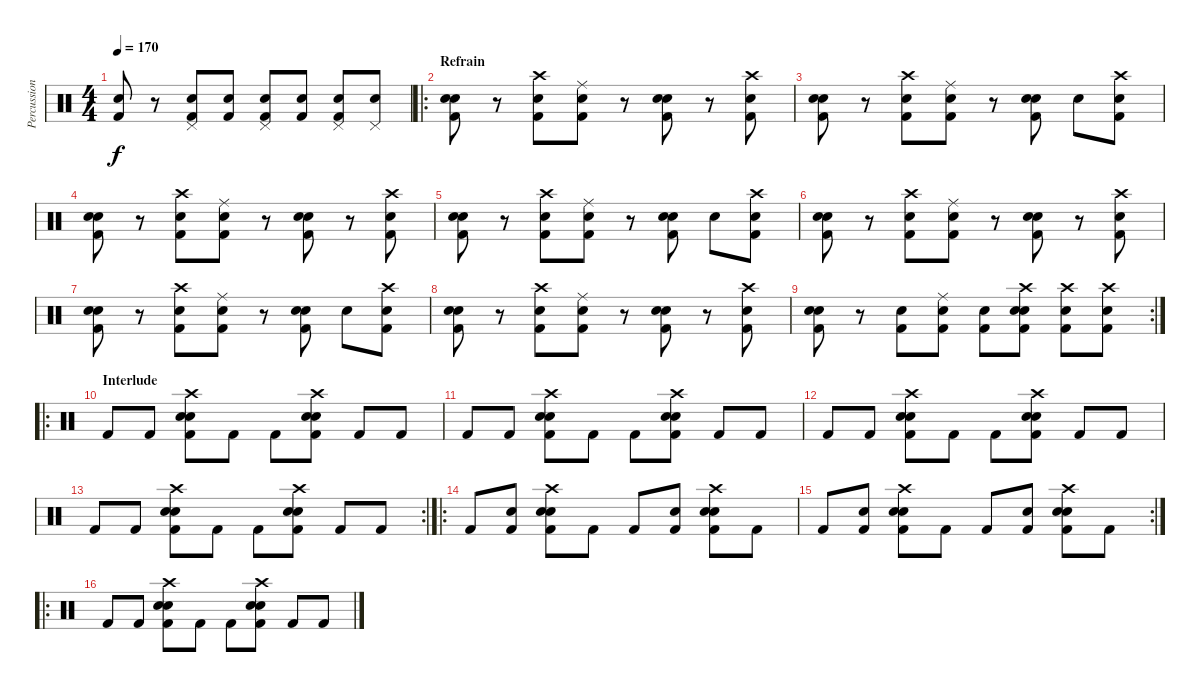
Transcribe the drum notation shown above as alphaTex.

\track ("Percussions" "Percussion") {instrument percussion}
\staff {score}
\articulation defaults
\ts (4 4)
\tempo 170
\clef neutral
\ks c
("Snare (hit) 2" "Kick (hit) 2").8{dy f} r.8 ("Pedal Hi-Hat (hit)" "Kick (hit) 2" "Snare (hit) 2").8 ("Kick (hit) 2" "Snare (hit) 2").8 ("Pedal Hi-Hat (hit)" "Kick (hit) 2" "Snare (hit) 2").8 ("Kick (hit) 2" "Snare (hit) 2").8 ("Pedal Hi-Hat (hit)" "Kick (hit) 2" "Snare (hit) 2").8 ("Pedal Hi-Hat (hit)" "Snare (hit) 2").8 |
\ro
\section ("" "Refrain")
("Electric Snare (hit)" "Kick (hit) 2" "Snare (hit) 2").8 r.8 ("Electric Snare (hit)" "Kick (hit) 2" "Crash high (hit)").8 ("Ride (middle)" "Snare (hit) 2" "Kick (hit) 2").8 r.8 ("Electric Snare (hit)" "Kick (hit) 2" "Snare (hit) 2").8 r.8 ("Snare (hit) 2" "Crash high (hit)" "Kick (hit) 2").8 |
("Electric Snare (hit)" "Kick (hit) 2" "Snare (hit) 2").8 r.8 ("Electric Snare (hit)" "Kick (hit) 2" "Crash high (hit)").8 ("Ride (middle)" "Snare (hit) 2" "Kick (hit) 2").8 r.8 ("Electric Snare (hit)" "Kick (hit) 2" "Snare (hit) 2").8 "Snare (hit) 2".8 ("Snare (hit) 2" "Crash high (hit)" "Kick (hit) 2").8 |
("Electric Snare (hit)" "Kick (hit) 2" "Snare (hit) 2").8 r.8 ("Electric Snare (hit)" "Kick (hit) 2" "Crash high (hit)").8 ("Ride (middle)" "Snare (hit) 2" "Kick (hit) 2").8 r.8 ("Electric Snare (hit)" "Kick (hit) 2" "Snare (hit) 2").8 r.8 ("Snare (hit) 2" "Crash high (hit)" "Kick (hit) 2").8 |
("Electric Snare (hit)" "Kick (hit) 2" "Snare (hit) 2").8 r.8 ("Electric Snare (hit)" "Kick (hit) 2" "Crash high (hit)").8 ("Ride (middle)" "Snare (hit) 2" "Kick (hit) 2").8 r.8 ("Electric Snare (hit)" "Kick (hit) 2" "Snare (hit) 2").8 "Snare (hit) 2".8 ("Snare (hit) 2" "Crash high (hit)" "Kick (hit) 2").8 |
("Electric Snare (hit)" "Kick (hit) 2" "Snare (hit) 2").8 r.8 ("Electric Snare (hit)" "Kick (hit) 2" "Crash high (hit)").8 ("Ride (middle)" "Snare (hit) 2" "Kick (hit) 2").8 r.8 ("Electric Snare (hit)" "Kick (hit) 2" "Snare (hit) 2").8 r.8 ("Snare (hit) 2" "Crash high (hit)" "Kick (hit) 2").8 |
("Electric Snare (hit)" "Kick (hit) 2" "Snare (hit) 2").8 r.8 ("Electric Snare (hit)" "Kick (hit) 2" "Crash high (hit)").8 ("Ride (middle)" "Snare (hit) 2" "Kick (hit) 2").8 r.8 ("Electric Snare (hit)" "Kick (hit) 2" "Snare (hit) 2").8 "Snare (hit) 2".8 ("Snare (hit) 2" "Crash high (hit)" "Kick (hit) 2").8 |
("Electric Snare (hit)" "Kick (hit) 2" "Snare (hit) 2").8 r.8 ("Electric Snare (hit)" "Kick (hit) 2" "Crash high (hit)").8 ("Ride (middle)" "Snare (hit) 2" "Kick (hit) 2").8 r.8 ("Electric Snare (hit)" "Kick (hit) 2" "Snare (hit) 2").8 r.8 ("Snare (hit) 2" "Crash high (hit)" "Kick (hit) 2").8 |
\rc 2
("Electric Snare (hit)" "Kick (hit) 2" "Snare (hit) 2").8 r.8 ("Electric Snare (hit)" "Kick (hit) 2").8 ("Ride (middle)" "Snare (hit) 2" "Kick (hit) 2").8 ("Electric Snare (hit)" "Kick (hit) 2").8 ("Electric Snare (hit)" "Kick (hit) 2" "Snare (hit) 2" "Crash high (hit)").8 ("Electric Snare (hit)" "Kick (hit) 2" "Crash high (hit)").8 ("Snare (hit) 2" "Crash high (hit)" "Kick (hit) 2").8 |
\ro
\section ("" "Interlude")
"Kick (hit) 2".8 "Kick (hit) 2".8 ("Electric Snare (hit)" "Snare (hit) 2" "Kick (hit) 2" "Crash high (hit)").8 "Kick (hit) 2".8 "Kick (hit) 2".8 ("Electric Snare (hit)" "Snare (hit) 2" "Kick (hit) 2" "Crash high (hit)").8 "Kick (hit) 2".8 "Kick (hit) 2".8 |
"Kick (hit) 2".8 "Kick (hit) 2".8 ("Electric Snare (hit)" "Snare (hit) 2" "Kick (hit) 2" "Crash high (hit)").8 "Kick (hit) 2".8 "Kick (hit) 2".8 ("Electric Snare (hit)" "Snare (hit) 2" "Kick (hit) 2" "Crash high (hit)").8 "Kick (hit) 2".8 "Kick (hit) 2".8 |
"Kick (hit) 2".8 "Kick (hit) 2".8 ("Electric Snare (hit)" "Snare (hit) 2" "Kick (hit) 2" "Crash high (hit)").8 "Kick (hit) 2".8 "Kick (hit) 2".8 ("Electric Snare (hit)" "Snare (hit) 2" "Kick (hit) 2" "Crash high (hit)").8 "Kick (hit) 2".8 "Kick (hit) 2".8 |
\rc 2 "Kick (hit) 2".8 "Kick (hit) 2".8
("Electric Snare (hit)" "Snare (hit) 2" "Kick (hit) 2" "Crash high (hit)").8 "Kick (hit) 2".8 "Kick (hit) 2".8 ("Electric Snare (hit)" "Snare (hit) 2" "Kick (hit) 2" "Crash high (hit)").8 "Kick (hit) 2".8 "Kick (hit) 2".8 |
\ro "Kick (hit) 2".8
("Kick (hit) 2" "Snare (hit) 2").8 ("Electric Snare (hit)" "Snare (hit) 2" "Kick (hit) 2" "Crash high (hit)").8 "Kick (hit) 2".8 "Kick (hit) 2".8 ("Kick (hit) 2" "Snare (hit) 2").8 ("Electric Snare (hit)" "Snare (hit) 2" "Kick (hit) 2" "Crash high (hit)").8 "Kick (hit) 2".8 |
\rc 2 "Kick (hit) 2".8
("Kick (hit) 2" "Snare (hit) 2").8 ("Electric Snare (hit)" "Snare (hit) 2" "Kick (hit) 2" "Crash high (hit)").8 "Kick (hit) 2".8 "Kick (hit) 2".8 ("Kick (hit) 2" "Snare (hit) 2").8 ("Electric Snare (hit)" "Snare (hit) 2" "Kick (hit) 2" "Crash high (hit)").8 "Kick (hit) 2".8 |
\ro "Kick (hit) 2".8 "Kick (hit) 2".8
("Electric Snare (hit)" "Snare (hit) 2" "Kick (hit) 2" "Crash high (hit)").8 "Kick (hit) 2".8 "Kick (hit) 2".8 ("Electric Snare (hit)" "Snare (hit) 2" "Kick (hit) 2" "Crash high (hit)").8 "Kick (hit) 2".8 "Kick (hit) 2".8
